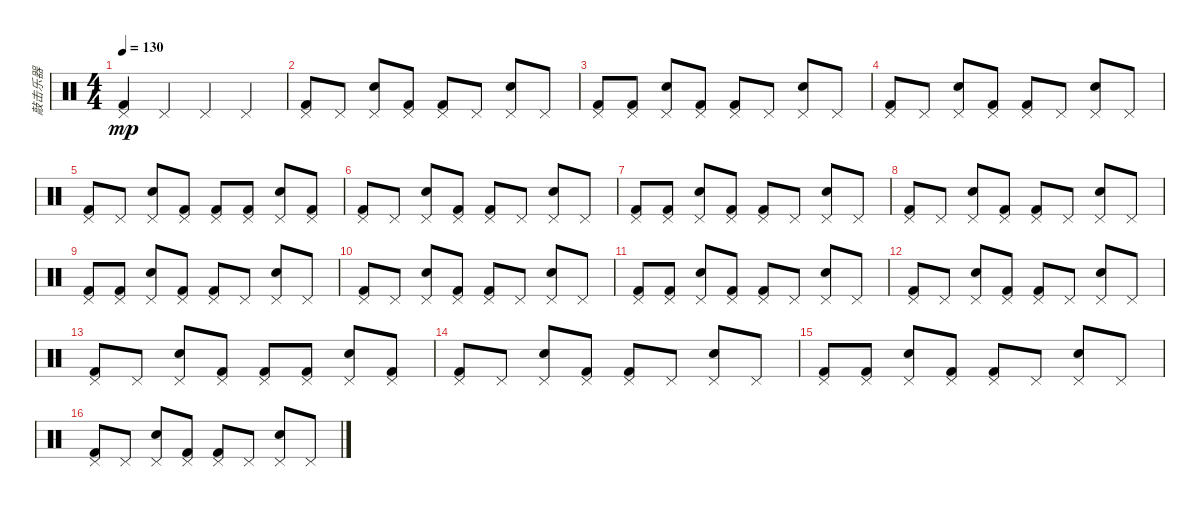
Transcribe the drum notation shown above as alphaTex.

\track ("敲击乐器" "敲击乐器") {instrument percussion}
\staff {score}
\articulation defaults
\ts (4 4)
\tempo 130
\clef neutral
\ks c
("Pedal Hi-Hat (hit)" "Kick (hit) 2").4{dy mp} "Pedal Hi-Hat (hit)".4 "Pedal Hi-Hat (hit)".4 "Pedal Hi-Hat (hit)".4 |
("Pedal Hi-Hat (hit)" "Kick (hit) 2").8 "Pedal Hi-Hat (hit)".8 ("Pedal Hi-Hat (hit)" "Electric Snare (hit)").8 ("Pedal Hi-Hat (hit)" "Kick (hit) 2").8 ("Pedal Hi-Hat (hit)" "Kick (hit) 2").8 "Pedal Hi-Hat (hit)".8 ("Pedal Hi-Hat (hit)" "Electric Snare (hit)").8 "Pedal Hi-Hat (hit)".8 |
("Pedal Hi-Hat (hit)" "Kick (hit) 2").8 ("Pedal Hi-Hat (hit)" "Kick (hit) 2").8 ("Pedal Hi-Hat (hit)" "Electric Snare (hit)").8 ("Pedal Hi-Hat (hit)" "Kick (hit) 2").8 ("Pedal Hi-Hat (hit)" "Kick (hit) 2").8 "Pedal Hi-Hat (hit)".8 ("Pedal Hi-Hat (hit)" "Electric Snare (hit)").8 "Pedal Hi-Hat (hit)".8 |
("Pedal Hi-Hat (hit)" "Kick (hit) 2").8 "Pedal Hi-Hat (hit)".8 ("Pedal Hi-Hat (hit)" "Electric Snare (hit)").8 ("Pedal Hi-Hat (hit)" "Kick (hit) 2").8 ("Pedal Hi-Hat (hit)" "Kick (hit) 2").8 "Pedal Hi-Hat (hit)".8 ("Pedal Hi-Hat (hit)" "Electric Snare (hit)").8 "Pedal Hi-Hat (hit)".8 |
("Pedal Hi-Hat (hit)" "Kick (hit) 2").8 "Pedal Hi-Hat (hit)".8 ("Pedal Hi-Hat (hit)" "Electric Snare (hit)").8 ("Pedal Hi-Hat (hit)" "Kick (hit) 2").8 ("Pedal Hi-Hat (hit)" "Kick (hit) 2").8 ("Pedal Hi-Hat (hit)" "Kick (hit) 2").8 ("Pedal Hi-Hat (hit)" "Electric Snare (hit)").8 ("Pedal Hi-Hat (hit)" "Kick (hit) 2").8 |
("Pedal Hi-Hat (hit)" "Kick (hit) 2").8 "Pedal Hi-Hat (hit)".8 ("Pedal Hi-Hat (hit)" "Electric Snare (hit)").8 ("Pedal Hi-Hat (hit)" "Kick (hit) 2").8 ("Pedal Hi-Hat (hit)" "Kick (hit) 2").8 "Pedal Hi-Hat (hit)".8 ("Pedal Hi-Hat (hit)" "Electric Snare (hit)").8 "Pedal Hi-Hat (hit)".8 |
("Pedal Hi-Hat (hit)" "Kick (hit) 2").8 ("Pedal Hi-Hat (hit)" "Kick (hit) 2").8 ("Pedal Hi-Hat (hit)" "Electric Snare (hit)").8 ("Pedal Hi-Hat (hit)" "Kick (hit) 2").8 ("Pedal Hi-Hat (hit)" "Kick (hit) 2").8 "Pedal Hi-Hat (hit)".8 ("Pedal Hi-Hat (hit)" "Electric Snare (hit)").8 "Pedal Hi-Hat (hit)".8 |
("Pedal Hi-Hat (hit)" "Kick (hit) 2").8 "Pedal Hi-Hat (hit)".8 ("Pedal Hi-Hat (hit)" "Electric Snare (hit)").8 ("Pedal Hi-Hat (hit)" "Kick (hit) 2").8 ("Pedal Hi-Hat (hit)" "Kick (hit) 2").8 "Pedal Hi-Hat (hit)".8 ("Pedal Hi-Hat (hit)" "Electric Snare (hit)").8 "Pedal Hi-Hat (hit)".8 |
("Pedal Hi-Hat (hit)" "Kick (hit) 2").8 ("Pedal Hi-Hat (hit)" "Kick (hit) 2").8 ("Pedal Hi-Hat (hit)" "Electric Snare (hit)").8 ("Pedal Hi-Hat (hit)" "Kick (hit) 2").8 ("Pedal Hi-Hat (hit)" "Kick (hit) 2").8 "Pedal Hi-Hat (hit)".8 ("Pedal Hi-Hat (hit)" "Electric Snare (hit)").8 "Pedal Hi-Hat (hit)".8 |
("Pedal Hi-Hat (hit)" "Kick (hit) 2").8 "Pedal Hi-Hat (hit)".8 ("Pedal Hi-Hat (hit)" "Electric Snare (hit)").8 ("Pedal Hi-Hat (hit)" "Kick (hit) 2").8 ("Pedal Hi-Hat (hit)" "Kick (hit) 2").8 "Pedal Hi-Hat (hit)".8 ("Pedal Hi-Hat (hit)" "Electric Snare (hit)").8 "Pedal Hi-Hat (hit)".8 |
("Pedal Hi-Hat (hit)" "Kick (hit) 2").8 ("Pedal Hi-Hat (hit)" "Kick (hit) 2").8 ("Pedal Hi-Hat (hit)" "Electric Snare (hit)").8 ("Pedal Hi-Hat (hit)" "Kick (hit) 2").8 ("Pedal Hi-Hat (hit)" "Kick (hit) 2").8 "Pedal Hi-Hat (hit)".8 ("Pedal Hi-Hat (hit)" "Electric Snare (hit)").8 "Pedal Hi-Hat (hit)".8 |
("Pedal Hi-Hat (hit)" "Kick (hit) 2").8 "Pedal Hi-Hat (hit)".8 ("Pedal Hi-Hat (hit)" "Electric Snare (hit)").8 ("Pedal Hi-Hat (hit)" "Kick (hit) 2").8 ("Pedal Hi-Hat (hit)" "Kick (hit) 2").8 "Pedal Hi-Hat (hit)".8 ("Pedal Hi-Hat (hit)" "Electric Snare (hit)").8 "Pedal Hi-Hat (hit)".8 |
("Pedal Hi-Hat (hit)" "Kick (hit) 2").8 "Pedal Hi-Hat (hit)".8 ("Pedal Hi-Hat (hit)" "Electric Snare (hit)").8 ("Pedal Hi-Hat (hit)" "Kick (hit) 2").8 ("Pedal Hi-Hat (hit)" "Kick (hit) 2").8 ("Pedal Hi-Hat (hit)" "Kick (hit) 2").8 ("Pedal Hi-Hat (hit)" "Electric Snare (hit)").8 ("Pedal Hi-Hat (hit)" "Kick (hit) 2").8 |
("Pedal Hi-Hat (hit)" "Kick (hit) 2").8 "Pedal Hi-Hat (hit)".8 ("Pedal Hi-Hat (hit)" "Electric Snare (hit)").8 ("Pedal Hi-Hat (hit)" "Kick (hit) 2").8 ("Pedal Hi-Hat (hit)" "Kick (hit) 2").8 "Pedal Hi-Hat (hit)".8 ("Pedal Hi-Hat (hit)" "Electric Snare (hit)").8 "Pedal Hi-Hat (hit)".8 |
("Pedal Hi-Hat (hit)" "Kick (hit) 2").8 ("Pedal Hi-Hat (hit)" "Kick (hit) 2").8 ("Pedal Hi-Hat (hit)" "Electric Snare (hit)").8 ("Pedal Hi-Hat (hit)" "Kick (hit) 2").8 ("Pedal Hi-Hat (hit)" "Kick (hit) 2").8 "Pedal Hi-Hat (hit)".8 ("Pedal Hi-Hat (hit)" "Electric Snare (hit)").8 "Pedal Hi-Hat (hit)".8 |
("Pedal Hi-Hat (hit)" "Kick (hit) 2").8 "Pedal Hi-Hat (hit)".8 ("Pedal Hi-Hat (hit)" "Electric Snare (hit)").8 ("Pedal Hi-Hat (hit)" "Kick (hit) 2").8 ("Pedal Hi-Hat (hit)" "Kick (hit) 2").8 "Pedal Hi-Hat (hit)".8 ("Pedal Hi-Hat (hit)" "Electric Snare (hit)").8 "Pedal Hi-Hat (hit)".8
